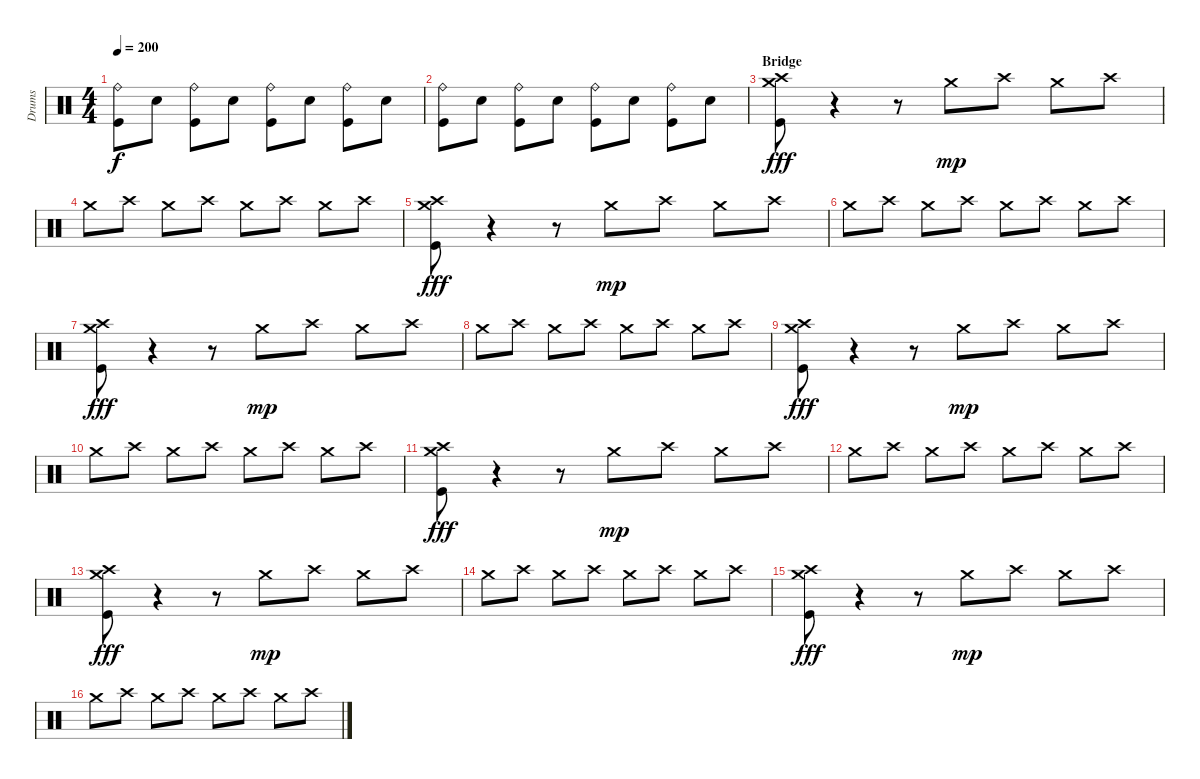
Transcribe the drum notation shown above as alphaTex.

\track ("Drums" "Drums") {instrument percussion}
\staff {score}
\articulation defaults
\ts (4 4)
\tempo 200
\clef neutral
\ks c
("Ride (bell)" "Kick (hit)").8{dy f} "Electric Snare (hit)".8 ("Ride (bell)" "Kick (hit)").8 "Electric Snare (hit)".8 ("Ride (bell)" "Kick (hit)").8 "Electric Snare (hit)".8 ("Ride (bell)" "Kick (hit)").8 "Electric Snare (hit)".8 |
("Ride (bell)" "Kick (hit)").8 "Electric Snare (hit)".8 ("Ride (bell)" "Kick (hit)").8 "Electric Snare (hit)".8 ("Ride (bell)" "Kick (hit)").8 "Electric Snare (hit)".8 ("Ride (bell)" "Kick (hit)").8 "Electric Snare (hit)".8 |
\section ("" "Bridge")
("Crash medium (hit)" "Crash high (hit)" "Kick (hit)").8{dy fff} r.4 r.8 "Crash medium (hit)".8{dy mp} "Crash high (hit)".8 "Crash medium (hit)".8 "Crash high (hit)".8 |
"Crash medium (hit)".8 "Crash high (hit)".8 "Crash medium (hit)".8 "Crash high (hit)".8 "Crash medium (hit)".8 "Crash high (hit)".8 "Crash medium (hit)".8 "Crash high (hit)".8 |
("Crash medium (hit)" "Crash high (hit)" "Kick (hit)").8{dy fff} r.4 r.8 "Crash medium (hit)".8{dy mp} "Crash high (hit)".8 "Crash medium (hit)".8 "Crash high (hit)".8 |
"Crash medium (hit)".8 "Crash high (hit)".8 "Crash medium (hit)".8 "Crash high (hit)".8 "Crash medium (hit)".8 "Crash high (hit)".8 "Crash medium (hit)".8 "Crash high (hit)".8 |
("Crash medium (hit)" "Crash high (hit)" "Kick (hit)").8{dy fff} r.4 r.8 "Crash medium (hit)".8{dy mp} "Crash high (hit)".8 "Crash medium (hit)".8 "Crash high (hit)".8 |
"Crash medium (hit)".8 "Crash high (hit)".8 "Crash medium (hit)".8 "Crash high (hit)".8 "Crash medium (hit)".8 "Crash high (hit)".8 "Crash medium (hit)".8 "Crash high (hit)".8 |
("Crash medium (hit)" "Crash high (hit)" "Kick (hit)").8{dy fff} r.4 r.8 "Crash medium (hit)".8{dy mp} "Crash high (hit)".8 "Crash medium (hit)".8 "Crash high (hit)".8 |
"Crash medium (hit)".8 "Crash high (hit)".8 "Crash medium (hit)".8 "Crash high (hit)".8 "Crash medium (hit)".8 "Crash high (hit)".8 "Crash medium (hit)".8 "Crash high (hit)".8 |
("Crash medium (hit)" "Crash high (hit)" "Kick (hit)").8{dy fff} r.4 r.8 "Crash medium (hit)".8{dy mp} "Crash high (hit)".8 "Crash medium (hit)".8 "Crash high (hit)".8 |
"Crash medium (hit)".8 "Crash high (hit)".8 "Crash medium (hit)".8 "Crash high (hit)".8 "Crash medium (hit)".8 "Crash high (hit)".8 "Crash medium (hit)".8 "Crash high (hit)".8 |
("Crash medium (hit)" "Crash high (hit)" "Kick (hit)").8{dy fff} r.4 r.8 "Crash medium (hit)".8{dy mp} "Crash high (hit)".8 "Crash medium (hit)".8 "Crash high (hit)".8 |
"Crash medium (hit)".8 "Crash high (hit)".8 "Crash medium (hit)".8 "Crash high (hit)".8 "Crash medium (hit)".8 "Crash high (hit)".8 "Crash medium (hit)".8 "Crash high (hit)".8 |
("Crash medium (hit)" "Crash high (hit)" "Kick (hit)").8{dy fff} r.4 r.8 "Crash medium (hit)".8{dy mp} "Crash high (hit)".8 "Crash medium (hit)".8 "Crash high (hit)".8 |
"Crash medium (hit)".8 "Crash high (hit)".8 "Crash medium (hit)".8 "Crash high (hit)".8 "Crash medium (hit)".8 "Crash high (hit)".8 "Crash medium (hit)".8 "Crash high (hit)".8
